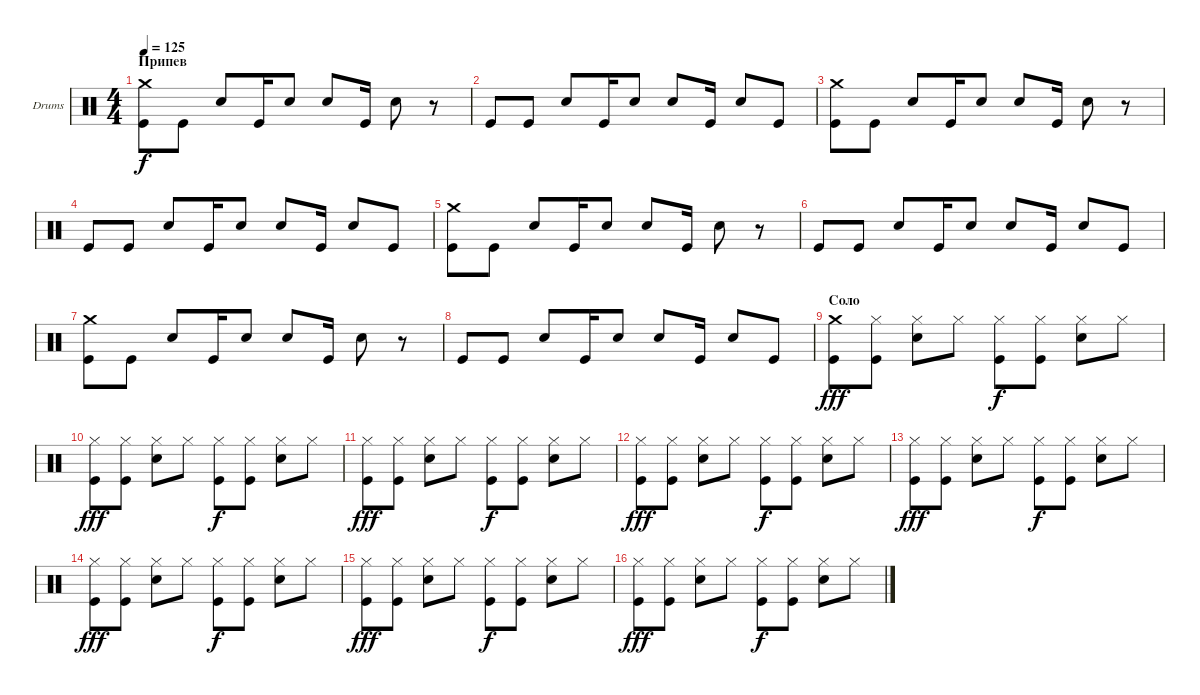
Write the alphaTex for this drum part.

\defaultSystemsLayout 4
\bracketExtendMode groupsimilarinstruments
\firstSystemTrackNameOrientation horizontal
\otherSystemsTrackNameOrientation horizontal
\track ("Drumkit" "Drums") {instrument percussion}
\staff {score}
\articulation defaults
\ts (4 4)
\section ("" "Припев")
\tempo 125
\clef neutral
\ks c
("Crash medium (hit)" "Kick (hit)").8{dy f} "Kick (hit)".8 "Snare (hit) 2".8 "Kick (hit)".16 "Snare (hit) 2".8 "Snare (hit) 2".8 "Kick (hit)".16 "Snare (hit) 2".8 r.8 |
"Kick (hit)".8 "Kick (hit)".8 "Snare (hit) 2".8 "Kick (hit)".16 "Snare (hit) 2".8 "Snare (hit) 2".8 "Kick (hit)".16 "Snare (hit) 2".8 "Kick (hit)".8 |
("Crash medium (hit)" "Kick (hit)").8 "Kick (hit)".8 "Snare (hit) 2".8 "Kick (hit)".16 "Snare (hit) 2".8 "Snare (hit) 2".8 "Kick (hit)".16 "Snare (hit) 2".8 r.8 |
"Kick (hit)".8 "Kick (hit)".8 "Snare (hit) 2".8 "Kick (hit)".16 "Snare (hit) 2".8 "Snare (hit) 2".8 "Kick (hit)".16 "Snare (hit) 2".8 "Kick (hit)".8 |
("Crash medium (hit)" "Kick (hit)").8 "Kick (hit)".8 "Snare (hit) 2".8 "Kick (hit)".16 "Snare (hit) 2".8 "Snare (hit) 2".8 "Kick (hit)".16 "Snare (hit) 2".8 r.8 |
"Kick (hit)".8 "Kick (hit)".8 "Snare (hit) 2".8 "Kick (hit)".16 "Snare (hit) 2".8 "Snare (hit) 2".8 "Kick (hit)".16 "Snare (hit) 2".8 "Kick (hit)".8 |
("Crash medium (hit)" "Kick (hit)").8 "Kick (hit)".8 "Snare (hit) 2".8 "Kick (hit)".16 "Snare (hit) 2".8 "Snare (hit) 2".8 "Kick (hit)".16 "Snare (hit) 2".8 r.8 |
"Kick (hit)".8 "Kick (hit)".8 "Snare (hit) 2".8 "Kick (hit)".16 "Snare (hit) 2".8 "Snare (hit) 2".8 "Kick (hit)".16 "Snare (hit) 2".8 "Kick (hit)".8 |
\section ("" "Соло")
("Crash medium (hit)" "Kick (hit)").8{dy fff} ("Hi-Hat (closed)" "Kick (hit)").8 ("Hi-Hat (closed)" "Snare (hit) 2").8 "Hi-Hat (closed)".8 ("Hi-Hat (closed)" "Kick (hit)").8{dy f} ("Hi-Hat (closed)" "Kick (hit)").8 ("Hi-Hat (closed)" "Snare (hit) 2").8 "Hi-Hat (closed)".8 |
("Hi-Hat (closed)" "Kick (hit)").8{dy fff} ("Hi-Hat (closed)" "Kick (hit)").8 ("Hi-Hat (closed)" "Snare (hit) 2").8 "Hi-Hat (closed)".8 ("Hi-Hat (closed)" "Kick (hit)").8{dy f} ("Hi-Hat (closed)" "Kick (hit)").8 ("Hi-Hat (closed)" "Snare (hit) 2").8 "Hi-Hat (closed)".8 |
("Hi-Hat (closed)" "Kick (hit)").8{dy fff} ("Hi-Hat (closed)" "Kick (hit)").8 ("Hi-Hat (closed)" "Snare (hit) 2").8 "Hi-Hat (closed)".8 ("Hi-Hat (closed)" "Kick (hit)").8{dy f} ("Hi-Hat (closed)" "Kick (hit)").8 ("Hi-Hat (closed)" "Snare (hit) 2").8 "Hi-Hat (closed)".8 |
("Hi-Hat (closed)" "Kick (hit)").8{dy fff} ("Hi-Hat (closed)" "Kick (hit)").8 ("Hi-Hat (closed)" "Snare (hit) 2").8 "Hi-Hat (closed)".8 ("Hi-Hat (closed)" "Kick (hit)").8{dy f} ("Hi-Hat (closed)" "Kick (hit)").8 ("Hi-Hat (closed)" "Snare (hit) 2").8 "Hi-Hat (closed)".8 |
("Hi-Hat (closed)" "Kick (hit)").8{dy fff} ("Hi-Hat (closed)" "Kick (hit)").8 ("Hi-Hat (closed)" "Snare (hit) 2").8 "Hi-Hat (closed)".8 ("Hi-Hat (closed)" "Kick (hit)").8{dy f} ("Hi-Hat (closed)" "Kick (hit)").8 ("Hi-Hat (closed)" "Snare (hit) 2").8 "Hi-Hat (closed)".8 |
("Hi-Hat (closed)" "Kick (hit)").8{dy fff} ("Hi-Hat (closed)" "Kick (hit)").8 ("Hi-Hat (closed)" "Snare (hit) 2").8 "Hi-Hat (closed)".8 ("Hi-Hat (closed)" "Kick (hit)").8{dy f} ("Hi-Hat (closed)" "Kick (hit)").8 ("Hi-Hat (closed)" "Snare (hit) 2").8 "Hi-Hat (closed)".8 |
("Hi-Hat (closed)" "Kick (hit)").8{dy fff} ("Hi-Hat (closed)" "Kick (hit)").8 ("Hi-Hat (closed)" "Snare (hit) 2").8 "Hi-Hat (closed)".8 ("Hi-Hat (closed)" "Kick (hit)").8{dy f} ("Hi-Hat (closed)" "Kick (hit)").8 ("Hi-Hat (closed)" "Snare (hit) 2").8 "Hi-Hat (closed)".8 |
("Hi-Hat (closed)" "Kick (hit)").8{dy fff} ("Hi-Hat (closed)" "Kick (hit)").8 ("Hi-Hat (closed)" "Snare (hit) 2").8 "Hi-Hat (closed)".8 ("Hi-Hat (closed)" "Kick (hit)").8{dy f} ("Hi-Hat (closed)" "Kick (hit)").8 ("Hi-Hat (closed)" "Snare (hit) 2").8 "Hi-Hat (closed)".8
